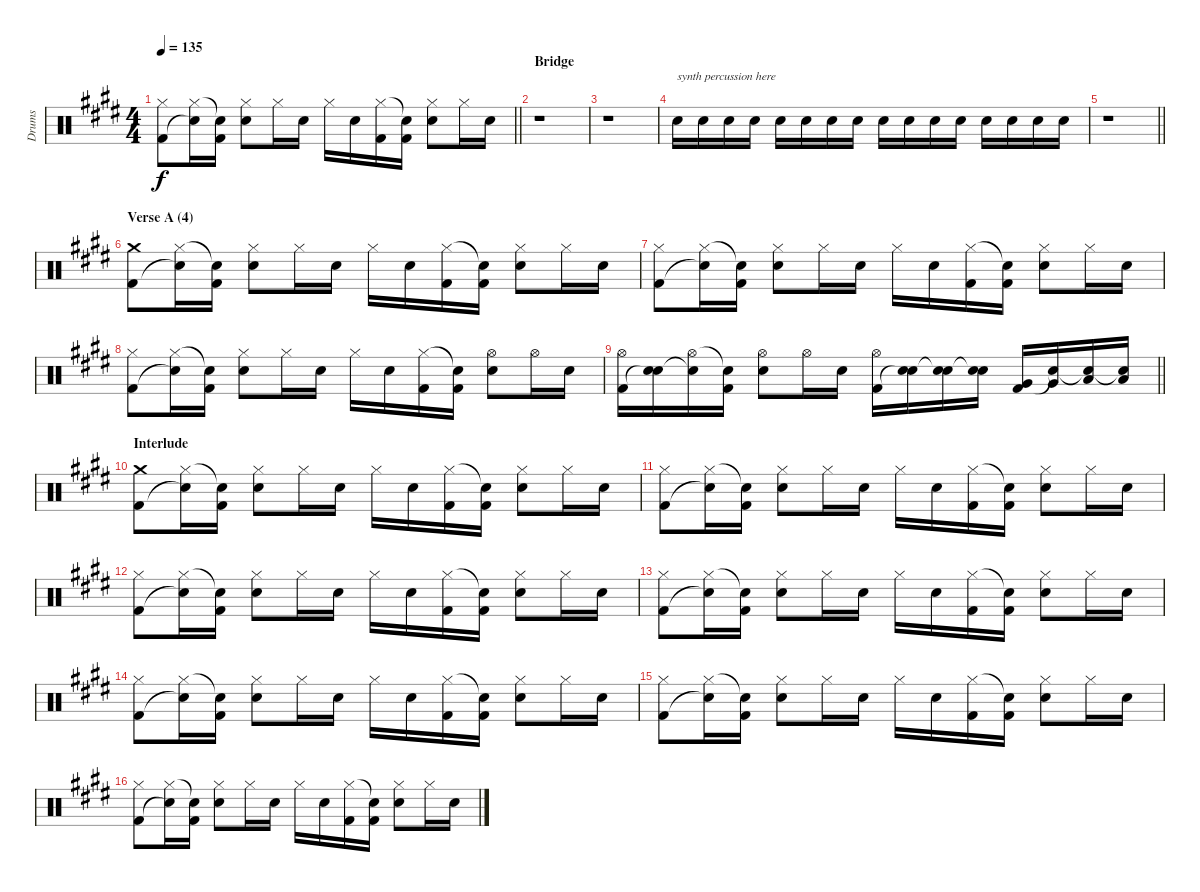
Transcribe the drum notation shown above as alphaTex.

\track ("Drums" "Drums") {instrument percussion}
\staff {score}
\articulation defaults
\ts (4 4)
\tempo 135
\clef neutral
\barLineRight lightlight
\ks c#minor
("Hi-Hat (closed)" "Kick (hit) 2").8{dy f} ("Hi-Hat (closed)" "Snare (hit)"{t}).16 ("Snare (hit)"{t} "Kick (hit) 2").16 ("Hi-Hat (closed)" "Electric Snare (hit)").8 "Hi-Hat (closed)".16 "Electric Snare (hit)".16 "Hi-Hat (closed)".16 "Electric Snare (hit)".16 ("Hi-Hat (closed)" "Kick (hit) 2").16 ("Snare (hit)"{t} "Kick (hit) 2").16 ("Hi-Hat (closed)" "Electric Snare (hit)").8 "Hi-Hat (closed)".16 "Electric Snare (hit)".16 |
\section ("" "Bridge")
r.1 |
r.1 |
"Electric Snare (hit)".16{txt "synth percussion here"} "Electric Snare (hit)".16 "Electric Snare (hit)".16 "Electric Snare (hit)".16 "Electric Snare (hit)".16 "Electric Snare (hit)".16 "Electric Snare (hit)".16 "Electric Snare (hit)".16 "Electric Snare (hit)".16 "Electric Snare (hit)".16 "Electric Snare (hit)".16 "Electric Snare (hit)".16 "Electric Snare (hit)".16 "Electric Snare (hit)".16 "Electric Snare (hit)".16 "Electric Snare (hit)".16 |
\barLineRight lightlight
r.1 |
\section ("" "Verse A (4)")
("Crash medium (hit)" "Kick (hit) 2").8 ("Hi-Hat (closed)" "Snare (hit)"{t}).16 ("Snare (hit)"{t} "Kick (hit) 2").16 ("Hi-Hat (closed)" "Electric Snare (hit)").8 "Hi-Hat (closed)".16 "Electric Snare (hit)".16 "Hi-Hat (closed)".16 "Electric Snare (hit)".16 ("Hi-Hat (closed)" "Kick (hit) 2").16 ("Snare (hit)"{t} "Kick (hit) 2").16 ("Hi-Hat (closed)" "Electric Snare (hit)").8 "Hi-Hat (closed)".16 "Electric Snare (hit)".16 |
("Hi-Hat (closed)" "Kick (hit) 2").8 ("Hi-Hat (closed)" "Snare (hit)"{t}).16 ("Snare (hit)"{t} "Kick (hit) 2").16 ("Hi-Hat (closed)" "Electric Snare (hit)").8 "Hi-Hat (closed)".16 "Electric Snare (hit)".16 "Hi-Hat (closed)".16 "Electric Snare (hit)".16 ("Hi-Hat (closed)" "Kick (hit) 2").16 ("Snare (hit)"{t} "Kick (hit) 2").16 ("Hi-Hat (closed)" "Electric Snare (hit)").8 "Hi-Hat (closed)".16 "Electric Snare (hit)".16 |
("Hi-Hat (closed)" "Kick (hit) 2").8 ("Hi-Hat (closed)" "Snare (hit)"{t}).16 ("Snare (hit)"{t} "Kick (hit) 2").16 ("Hi-Hat (closed)" "Electric Snare (hit)").8 "Hi-Hat (closed)".16 "Electric Snare (hit)".16 "Hi-Hat (closed)".16 "Electric Snare (hit)".16 ("Hi-Hat (closed)" "Kick (hit) 2").16 ("Snare (hit)"{t} "Kick (hit) 2").16 ("Hi-Hat (open)" "Electric Snare (hit)").8 "Hi-Hat (open)".16 "Electric Snare (hit)".16 |
\barLineRight lightlight
("Hi-Hat (open)" "Kick (hit) 2").16 ("Electric Snare (hit)" "Snare (hit)"{t}).16 ("Hi-Hat (open)" "Snare (hit)"{t}).16 ("Snare (hit)"{t} "Kick (hit) 2").16 ("Hi-Hat (open)" "Electric Snare (hit)").8 "Hi-Hat (open)".16 "Electric Snare (hit)".16 ("Hi-Hat (open)" "Kick (hit) 2").16 ("Electric Snare (hit)" "Snare (hit)"{t}).16 ("Electric Snare (hit)" "Snare (hit)"{t}).16 ("Electric Snare (hit)" "Snare (hit)"{t}).16 ("Very Low Tom (hit)" "Kick (hit) 2").16 ("Very Low Tom (hit)" "Snare (hit)"{t}).16 ("Low Floor Tom (hit)" "Snare (hit)"{t}).16 ("Low Floor Tom (hit)" "Snare (hit)"{t}).16 |
\section ("" "Interlude")
("Crash medium (hit)" "Kick (hit) 2").8 ("Hi-Hat (closed)" "Snare (hit)"{t}).16 ("Snare (hit)"{t} "Kick (hit) 2").16 ("Hi-Hat (closed)" "Electric Snare (hit)").8 "Hi-Hat (closed)".16 "Electric Snare (hit)".16 "Hi-Hat (closed)".16 "Electric Snare (hit)".16 ("Hi-Hat (closed)" "Kick (hit) 2").16 ("Snare (hit)"{t} "Kick (hit) 2").16 ("Hi-Hat (closed)" "Electric Snare (hit)").8 "Hi-Hat (closed)".16 "Electric Snare (hit)".16 |
("Hi-Hat (closed)" "Kick (hit) 2").8 ("Hi-Hat (closed)" "Snare (hit)"{t}).16 ("Snare (hit)"{t} "Kick (hit) 2").16 ("Hi-Hat (closed)" "Electric Snare (hit)").8 "Hi-Hat (closed)".16 "Electric Snare (hit)".16 "Hi-Hat (closed)".16 "Electric Snare (hit)".16 ("Hi-Hat (closed)" "Kick (hit) 2").16 ("Snare (hit)"{t} "Kick (hit) 2").16 ("Hi-Hat (closed)" "Electric Snare (hit)").8 "Hi-Hat (closed)".16 "Electric Snare (hit)".16 |
("Hi-Hat (closed)" "Kick (hit) 2").8 ("Hi-Hat (closed)" "Snare (hit)"{t}).16 ("Snare (hit)"{t} "Kick (hit) 2").16 ("Hi-Hat (closed)" "Electric Snare (hit)").8 "Hi-Hat (closed)".16 "Electric Snare (hit)".16 "Hi-Hat (closed)".16 "Electric Snare (hit)".16 ("Hi-Hat (closed)" "Kick (hit) 2").16 ("Snare (hit)"{t} "Kick (hit) 2").16 ("Hi-Hat (closed)" "Electric Snare (hit)").8 "Hi-Hat (closed)".16 "Electric Snare (hit)".16 |
("Hi-Hat (closed)" "Kick (hit) 2").8 ("Hi-Hat (closed)" "Snare (hit)"{t}).16 ("Snare (hit)"{t} "Kick (hit) 2").16 ("Hi-Hat (closed)" "Electric Snare (hit)").8 "Hi-Hat (closed)".16 "Electric Snare (hit)".16 "Hi-Hat (closed)".16 "Electric Snare (hit)".16 ("Hi-Hat (closed)" "Kick (hit) 2").16 ("Snare (hit)"{t} "Kick (hit) 2").16 ("Hi-Hat (closed)" "Electric Snare (hit)").8 "Hi-Hat (closed)".16 "Electric Snare (hit)".16 |
("Hi-Hat (closed)" "Kick (hit) 2").8 ("Hi-Hat (closed)" "Snare (hit)"{t}).16 ("Snare (hit)"{t} "Kick (hit) 2").16 ("Hi-Hat (closed)" "Electric Snare (hit)").8 "Hi-Hat (closed)".16 "Electric Snare (hit)".16 "Hi-Hat (closed)".16 "Electric Snare (hit)".16 ("Hi-Hat (closed)" "Kick (hit) 2").16 ("Snare (hit)"{t} "Kick (hit) 2").16 ("Hi-Hat (closed)" "Electric Snare (hit)").8 "Hi-Hat (closed)".16 "Electric Snare (hit)".16 |
("Hi-Hat (closed)" "Kick (hit) 2").8 ("Hi-Hat (closed)" "Snare (hit)"{t}).16 ("Snare (hit)"{t} "Kick (hit) 2").16 ("Hi-Hat (closed)" "Electric Snare (hit)").8 "Hi-Hat (closed)".16 "Electric Snare (hit)".16 "Hi-Hat (closed)".16 "Electric Snare (hit)".16 ("Hi-Hat (closed)" "Kick (hit) 2").16 ("Snare (hit)"{t} "Kick (hit) 2").16 ("Hi-Hat (closed)" "Electric Snare (hit)").8 "Hi-Hat (closed)".16 "Electric Snare (hit)".16 |
("Hi-Hat (closed)" "Kick (hit) 2").8 ("Hi-Hat (closed)" "Snare (hit)"{t}).16 ("Snare (hit)"{t} "Kick (hit) 2").16 ("Hi-Hat (closed)" "Electric Snare (hit)").8 "Hi-Hat (closed)".16 "Electric Snare (hit)".16 "Hi-Hat (closed)".16 "Electric Snare (hit)".16 ("Hi-Hat (closed)" "Kick (hit) 2").16 ("Snare (hit)"{t} "Kick (hit) 2").16 ("Hi-Hat (closed)" "Electric Snare (hit)").8 "Hi-Hat (closed)".16 "Electric Snare (hit)".16
